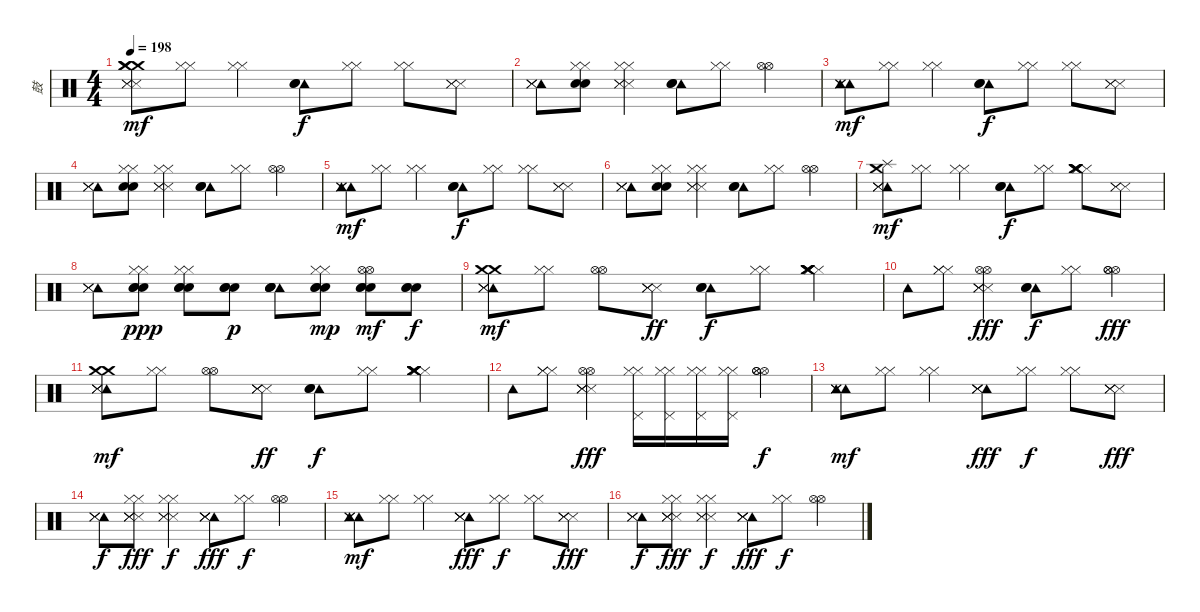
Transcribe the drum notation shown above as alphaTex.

\track ("鼓" "鼓") {instrument percussion}
\staff {score}
\articulation defaults
\ts (4 4)
\tempo 198
\clef neutral
\ks c
("Crash medium (hit)" "Crash medium (hit)" "Metronome (hit)" "Metronome (hit)" "Metronome (hit)" "Crash medium (hit)").8{dy mf} ("Hi-Hat (closed)" "Hi-Hat (closed)").8 ("Hi-Hat (closed)" "Hi-Hat (closed)").4 ("Tambourine (hit)" "Metronome (bell)" "Metronome (bell)").8{dy f} ("Hi-Hat (closed)" "Hi-Hat (closed)").8 ("Hi-Hat (closed)" "Hi-Hat (closed)").8 ("Metronome (hit)" "Metronome (hit)" "Metronome (hit)").8 |
("Tambourine (hit)" "Metronome (hit)" "Metronome (hit)" "Metronome (hit)").8 ("Hi-Hat (closed)" "Hi-Hat (closed)" "Metronome (bell)" "Metronome (bell)").8 ("Hi-Hat (closed)" "Hi-Hat (closed)" "Metronome (hit)" "Metronome (hit)" "Metronome (hit)").4 ("Tambourine (hit)" "Metronome (bell)" "Metronome (bell)").8 ("Hi-Hat (closed)" "Hi-Hat (closed)").8 ("Hi-Hat (open)" "Hi-Hat (open)").4 |
("Tambourine (hit)" "Tambourine (hit)" "Metronome (hit)" "Metronome (hit)" "Metronome (hit)").8{dy mf} ("Hi-Hat (closed)" "Hi-Hat (closed)").8 ("Hi-Hat (closed)" "Hi-Hat (closed)").4 ("Tambourine (hit)" "Metronome (bell)" "Metronome (bell)").8{dy f} ("Hi-Hat (closed)" "Hi-Hat (closed)").8 ("Hi-Hat (closed)" "Hi-Hat (closed)").8 ("Metronome (hit)" "Metronome (hit)" "Metronome (hit)").8 |
("Tambourine (hit)" "Metronome (hit)" "Metronome (hit)" "Metronome (hit)").8 ("Hi-Hat (closed)" "Hi-Hat (closed)" "Metronome (bell)" "Metronome (bell)").8 ("Hi-Hat (closed)" "Hi-Hat (closed)" "Metronome (hit)" "Metronome (hit)" "Metronome (hit)").4 ("Tambourine (hit)" "Metronome (bell)" "Metronome (bell)").8 ("Hi-Hat (closed)" "Hi-Hat (closed)").8 ("Hi-Hat (open)" "Hi-Hat (open)").4 |
("Tambourine (hit)" "Tambourine (hit)" "Metronome (hit)" "Metronome (hit)" "Metronome (hit)").8{dy mf} ("Hi-Hat (closed)" "Hi-Hat (closed)").8 ("Hi-Hat (closed)" "Hi-Hat (closed)").4 ("Tambourine (hit)" "Metronome (bell)" "Metronome (bell)").8{dy f} ("Hi-Hat (closed)" "Hi-Hat (closed)").8 ("Hi-Hat (closed)" "Hi-Hat (closed)").8 ("Metronome (hit)" "Metronome (hit)" "Metronome (hit)").8 |
("Tambourine (hit)" "Metronome (hit)" "Metronome (hit)" "Metronome (hit)").8 ("Hi-Hat (closed)" "Hi-Hat (closed)" "Metronome (bell)" "Metronome (bell)").8 ("Hi-Hat (closed)" "Hi-Hat (closed)" "Metronome (hit)" "Metronome (hit)" "Metronome (hit)").4 ("Tambourine (hit)" "Metronome (bell)" "Metronome (bell)").8 ("Hi-Hat (closed)" "Hi-Hat (closed)").8 ("Hi-Hat (open)" "Hi-Hat (open)").4 |
("Crash medium (hit)" "Tambourine (hit)" "Metronome (hit)" "Metronome (hit)" "Metronome (hit)" "Splash (hit)").8{dy mf} ("Hi-Hat (closed)" "Hi-Hat (closed)").8 ("Hi-Hat (closed)" "Hi-Hat (closed)").4 ("Tambourine (hit)" "Metronome (bell)" "Metronome (bell)").8{dy f} ("Hi-Hat (closed)" "Hi-Hat (closed)").8 ("Hi-Hat (closed)" "Hi-Hat (closed)" "Crash medium (hit)" "Crash medium (hit)" "Crash medium (hit)").8 ("Metronome (hit)" "Metronome (hit)" "Metronome (hit)").8 |
("Tambourine (hit)" "Metronome (hit)" "Metronome (hit)" "Metronome (hit)").8 ("Hi-Hat (closed)" "Hi-Hat (closed)" "Metronome (bell)" "Metronome (bell)" "Metronome (bell)").8{dy ppp} ("Hi-Hat (closed)" "Hi-Hat (closed)" "Metronome (bell)" "Metronome (bell)" "Metronome (bell)").8 ("Metronome (bell)" "Metronome (bell)" "Metronome (bell)").8{dy p} ("Tambourine (hit)" "Metronome (bell)" "Metronome (bell)" "Metronome (bell)").8 ("Hi-Hat (closed)" "Hi-Hat (closed)" "Metronome (bell)" "Metronome (bell)" "Metronome (bell)").8{dy mp} ("Hi-Hat (open)" "Hi-Hat (open)" "Metronome (bell)" "Metronome (bell)" "Metronome (bell)").8{dy mf} ("Metronome (bell)" "Metronome (bell)" "Metronome (bell)").8{dy f} |
("Crash medium (hit)" "Tambourine (hit)" "Metronome (hit)" "Metronome (hit)" "Metronome (hit)" "Crash medium (hit)").8{dy mf} ("Hi-Hat (closed)" "Hi-Hat (closed)").8 ("Hi-Hat (open)" "Hi-Hat (open)").8 ("Metronome (hit)" "Metronome (hit)" "Metronome (hit)" "Metronome (hit)").8{dy ff} ("Tambourine (hit)" "Metronome (bell)" "Metronome (bell)").8{dy f} ("Hi-Hat (closed)" "Hi-Hat (closed)").8 ("Hi-Hat (closed)" "Hi-Hat (closed)" "Crash medium (hit)" "Crash medium (hit)" "Crash medium (hit)").4 |
"Tambourine (hit)".8 ("Hi-Hat (closed)" "Hi-Hat (closed)" "Hi-Hat (closed)").8 ("Hi-Hat (open)" "Hi-Hat (open)" "Metronome (hit)" "Metronome (hit)" "Metronome (hit)" "Metronome (hit)").4{dy fff} ("Tambourine (hit)" "Metronome (bell)" "Metronome (bell)").8{dy f} ("Hi-Hat (closed)" "Hi-Hat (closed)").8 ("Hi-Hat (open)" "Hi-Hat (open)" "Hi-Hat (open)").4{dy fff} |
("Crash medium (hit)" "Tambourine (hit)" "Metronome (hit)" "Metronome (hit)" "Metronome (hit)" "Crash medium (hit)").8{dy mf} ("Hi-Hat (closed)" "Hi-Hat (closed)").8 ("Hi-Hat (open)" "Hi-Hat (open)").8 ("Metronome (hit)" "Metronome (hit)" "Metronome (hit)" "Metronome (hit)").8{dy ff} ("Tambourine (hit)" "Metronome (bell)" "Metronome (bell)").8{dy f} ("Hi-Hat (closed)" "Hi-Hat (closed)").8 ("Hi-Hat (closed)" "Hi-Hat (closed)" "Crash medium (hit)" "Crash medium (hit)" "Crash medium (hit)").4 |
"Tambourine (hit)".8 ("Hi-Hat (closed)" "Hi-Hat (closed)" "Hi-Hat (closed)").8 ("Hi-Hat (open)" "Hi-Hat (open)" "Metronome (hit)" "Metronome (hit)" "Metronome (hit)" "Metronome (hit)").4{dy fff} ("Hi-Hat (closed)" "Hi-Hat (closed)" "Pedal Hi-Hat (hit)").16 ("Hi-Hat (closed)" "Hi-Hat (closed)" "Pedal Hi-Hat (hit)").16 ("Hi-Hat (closed)" "Hi-Hat (closed)" "Pedal Hi-Hat (hit)").16 ("Hi-Hat (closed)" "Hi-Hat (closed)" "Pedal Hi-Hat (hit)").16 ("Hi-Hat (open)" "Hi-Hat (open)" "Hi-Hat (open)").4{dy f} |
("Tambourine (hit)" "Tambourine (hit)" "Metronome (hit)" "Metronome (hit)" "Metronome (hit)").8{dy mf} ("Hi-Hat (closed)" "Hi-Hat (closed)").8 ("Hi-Hat (closed)" "Hi-Hat (closed)").4 ("Tambourine (hit)" "Snare (side stick) 3" "Snare (side stick) 3" "Snare (side stick) 3" "Snare (side stick) 3").8{dy fff} ("Hi-Hat (closed)" "Hi-Hat (closed)").8{dy f} ("Hi-Hat (closed)" "Hi-Hat (closed)").8 ("Snare (side stick) 3" "Snare (side stick) 3" "Snare (side stick) 3" "Snare (side stick) 3").8{dy fff} |
("Tambourine (hit)" "Metronome (hit)" "Metronome (hit)" "Metronome (hit)").8{dy f} ("Hi-Hat (closed)" "Hi-Hat (closed)" "Snare (side stick) 3" "Snare (side stick) 3" "Snare (side stick) 3" "Snare (side stick) 3").8{dy fff} ("Hi-Hat (closed)" "Hi-Hat (closed)" "Metronome (hit)" "Metronome (hit)" "Metronome (hit)").4{dy f} ("Tambourine (hit)" "Snare (side stick) 3" "Snare (side stick) 3" "Snare (side stick) 3" "Snare (side stick) 3").8{dy fff} ("Hi-Hat (closed)" "Hi-Hat (closed)").8{dy f} ("Hi-Hat (open)" "Hi-Hat (open)").4 |
("Tambourine (hit)" "Tambourine (hit)" "Metronome (hit)" "Metronome (hit)" "Metronome (hit)").8{dy mf} ("Hi-Hat (closed)" "Hi-Hat (closed)").8 ("Hi-Hat (closed)" "Hi-Hat (closed)").4 ("Tambourine (hit)" "Snare (side stick) 3" "Snare (side stick) 3" "Snare (side stick) 3" "Snare (side stick) 3").8{dy fff} ("Hi-Hat (closed)" "Hi-Hat (closed)").8{dy f} ("Hi-Hat (closed)" "Hi-Hat (closed)").8 ("Snare (side stick) 3" "Snare (side stick) 3" "Snare (side stick) 3" "Snare (side stick) 3").8{dy fff} |
("Tambourine (hit)" "Metronome (hit)" "Metronome (hit)" "Metronome (hit)").8{dy f} ("Hi-Hat (closed)" "Hi-Hat (closed)" "Snare (side stick) 3" "Snare (side stick) 3" "Snare (side stick) 3" "Snare (side stick) 3").8{dy fff} ("Hi-Hat (closed)" "Hi-Hat (closed)" "Metronome (hit)" "Metronome (hit)" "Metronome (hit)").4{dy f} ("Tambourine (hit)" "Snare (side stick) 3" "Snare (side stick) 3" "Snare (side stick) 3" "Snare (side stick) 3").8{dy fff} ("Hi-Hat (closed)" "Hi-Hat (closed)").8{dy f} ("Hi-Hat (open)" "Hi-Hat (open)").4
